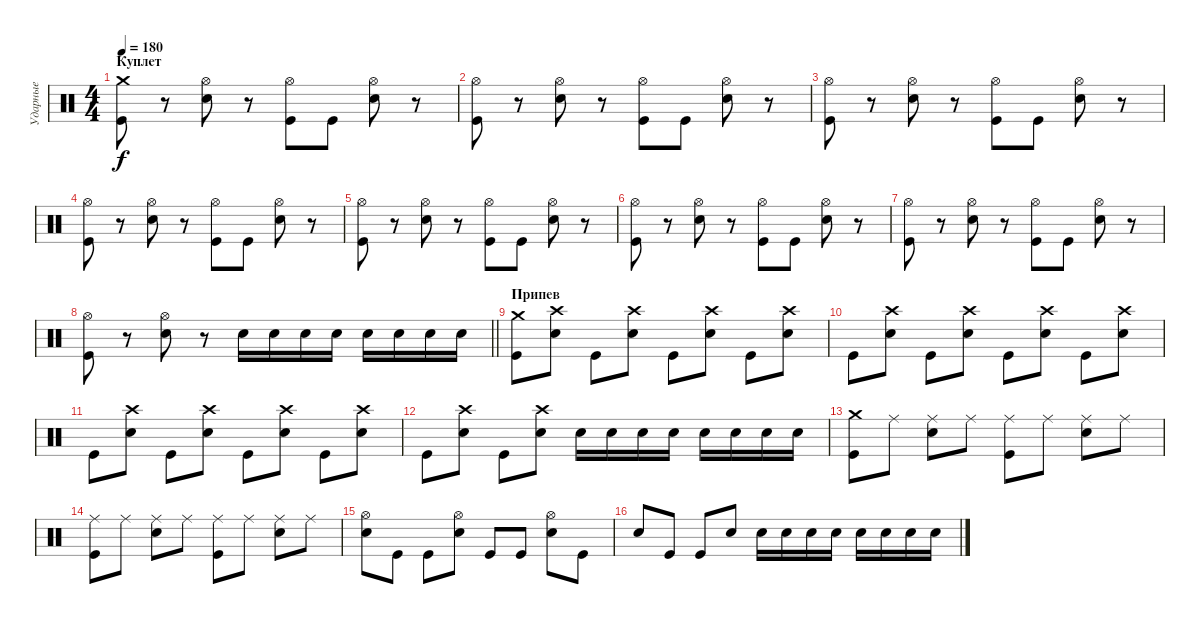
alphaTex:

\track ("Ударные" "Ударные") {instrument percussion}
\staff {score}
\articulation defaults
\ts (4 4)
\section ("" "Куплет")
\tempo 180
\clef neutral
\ks c
("Crash medium (hit)" "Kick (hit)").8{dy f} r.8 ("Hi-Hat (open)" "Electric Snare (hit)").8 r.8 ("Hi-Hat (open)" "Kick (hit)").8 "Kick (hit)".8 ("Hi-Hat (open)" "Electric Snare (hit)").8 r.8 |
("Hi-Hat (open)" "Kick (hit)").8 r.8 ("Hi-Hat (open)" "Electric Snare (hit)").8 r.8 ("Hi-Hat (open)" "Kick (hit)").8 "Kick (hit)".8 ("Hi-Hat (open)" "Electric Snare (hit)").8 r.8 |
("Hi-Hat (open)" "Kick (hit)").8 r.8 ("Hi-Hat (open)" "Electric Snare (hit)").8 r.8 ("Hi-Hat (open)" "Kick (hit)").8 "Kick (hit)".8 ("Hi-Hat (open)" "Electric Snare (hit)").8 r.8 |
("Hi-Hat (open)" "Kick (hit)").8 r.8 ("Hi-Hat (open)" "Electric Snare (hit)").8 r.8 ("Hi-Hat (open)" "Kick (hit)").8 "Kick (hit)".8 ("Hi-Hat (open)" "Electric Snare (hit)").8 r.8 |
("Hi-Hat (open)" "Kick (hit)").8 r.8 ("Hi-Hat (open)" "Electric Snare (hit)").8 r.8 ("Hi-Hat (open)" "Kick (hit)").8 "Kick (hit)".8 ("Hi-Hat (open)" "Electric Snare (hit)").8 r.8 |
("Hi-Hat (open)" "Kick (hit)").8 r.8 ("Hi-Hat (open)" "Electric Snare (hit)").8 r.8 ("Hi-Hat (open)" "Kick (hit)").8 "Kick (hit)".8 ("Hi-Hat (open)" "Electric Snare (hit)").8 r.8 |
("Hi-Hat (open)" "Kick (hit)").8 r.8 ("Hi-Hat (open)" "Electric Snare (hit)").8 r.8 ("Hi-Hat (open)" "Kick (hit)").8 "Kick (hit)".8 ("Hi-Hat (open)" "Electric Snare (hit)").8 r.8 |
\barLineRight lightlight
("Hi-Hat (open)" "Kick (hit)").8 r.8 ("Hi-Hat (open)" "Electric Snare (hit)").8 r.8 "Electric Snare (hit)".16 "Electric Snare (hit)".16 "Electric Snare (hit)".16 "Electric Snare (hit)".16 "Electric Snare (hit)".16 "Electric Snare (hit)".16 "Electric Snare (hit)".16 "Electric Snare (hit)".16 |
\section ("" "Припев")
("Crash medium (hit)" "Kick (hit)").8 ("Crash high (hit)" "Electric Snare (hit)").8 "Kick (hit)".8 ("Crash high (hit)" "Electric Snare (hit)").8 "Kick (hit)".8 ("Crash high (hit)" "Electric Snare (hit)").8 "Kick (hit)".8 ("Crash high (hit)" "Electric Snare (hit)").8 |
"Kick (hit)".8 ("Crash high (hit)" "Electric Snare (hit)").8 "Kick (hit)".8 ("Crash high (hit)" "Electric Snare (hit)").8 "Kick (hit)".8 ("Crash high (hit)" "Electric Snare (hit)").8 "Kick (hit)".8 ("Crash high (hit)" "Electric Snare (hit)").8 |
"Kick (hit)".8 ("Crash high (hit)" "Electric Snare (hit)").8 "Kick (hit)".8 ("Crash high (hit)" "Electric Snare (hit)").8 "Kick (hit)".8 ("Crash high (hit)" "Electric Snare (hit)").8 "Kick (hit)".8 ("Crash high (hit)" "Electric Snare (hit)").8 |
"Kick (hit)".8 ("Crash high (hit)" "Electric Snare (hit)").8 "Kick (hit)".8 ("Crash high (hit)" "Electric Snare (hit)").8 "Electric Snare (hit)".16 "Electric Snare (hit)".16 "Electric Snare (hit)".16 "Electric Snare (hit)".16 "Electric Snare (hit)".16 "Electric Snare (hit)".16 "Electric Snare (hit)".16 "Electric Snare (hit)".16 |
("Crash medium (hit)" "Kick (hit)").8 "Ride (middle)".8 ("Ride (middle)" "Electric Snare (hit)").8 "Ride (middle)".8 ("Ride (middle)" "Kick (hit)").8 "Ride (middle)".8 ("Ride (middle)" "Electric Snare (hit)").8 "Ride (middle)".8 |
("Ride (middle)" "Kick (hit)").8 "Ride (middle)".8 ("Ride (middle)" "Electric Snare (hit)").8 "Ride (middle)".8 ("Ride (middle)" "Kick (hit)").8 "Ride (middle)".8 ("Ride (middle)" "Electric Snare (hit)").8 "Ride (middle)".8 |
("Electric Snare (hit)" "Hi-Hat (open)").8 "Kick (hit)".8 "Kick (hit)".8 ("Electric Snare (hit)" "Hi-Hat (open)").8 "Kick (hit)".8 "Kick (hit)".8 ("Electric Snare (hit)" "Hi-Hat (open)").8 "Kick (hit)".8 |
"Electric Snare (hit)".8 "Kick (hit)".8 "Kick (hit)".8 "Electric Snare (hit)".8 "Electric Snare (hit)".16 "Electric Snare (hit)".16 "Electric Snare (hit)".16 "Electric Snare (hit)".16 "Electric Snare (hit)".16 "Electric Snare (hit)".16 "Electric Snare (hit)".16 "Electric Snare (hit)".16
